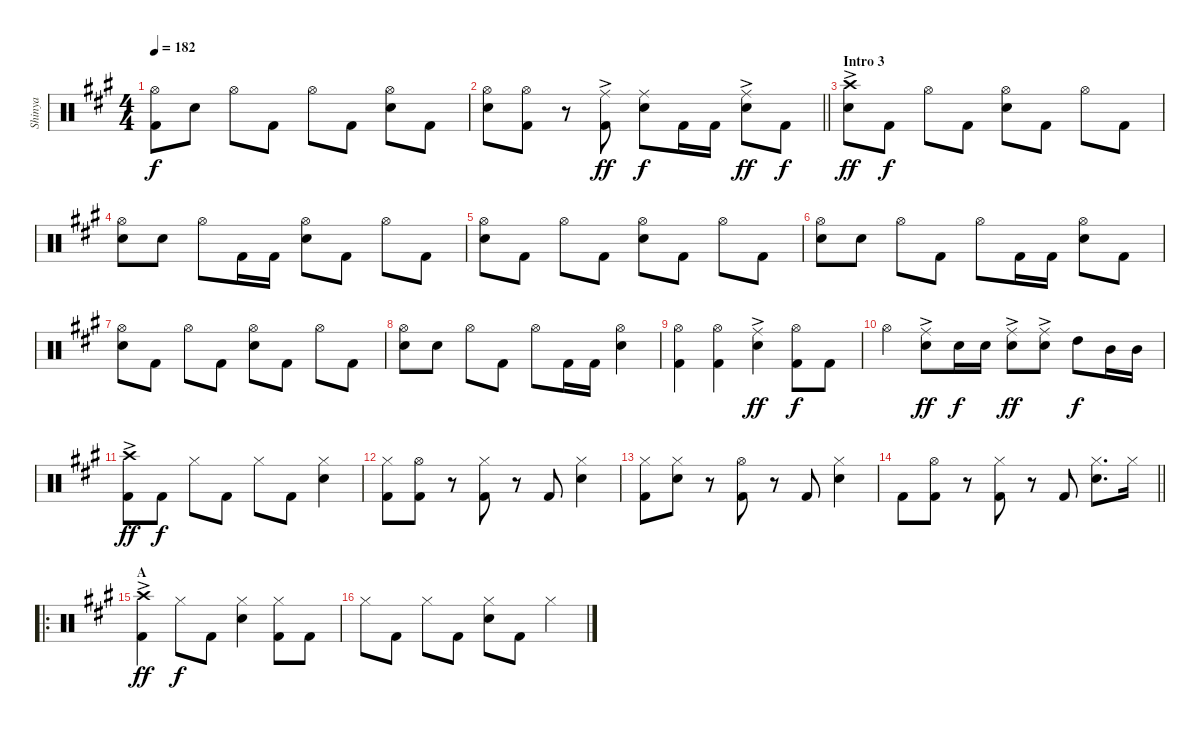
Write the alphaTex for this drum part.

\track ("Shinya" "Shinya") {instrument percussion}
\staff {score}
\articulation defaults
\ts (4 4)
\tempo 182
\clef neutral
\ks a
("Hi-Hat (open)" "Kick (hit) 2").8{dy f} "Snare (hit) 2".8 "Hi-Hat (open)".8 "Kick (hit) 2".8 "Hi-Hat (open)".8 "Kick (hit) 2".8 ("Hi-Hat (open)" "Snare (hit) 2").8 "Kick (hit) 2".8 |
\barLineRight lightlight
("Hi-Hat (open)" "Snare (hit) 2").8 ("Hi-Hat (open)" "Kick (hit) 2").8 r.8 ("Ride (middle)"{ac} "Kick (hit) 2").8{dy ff} ("Ride (middle)" "Snare (hit) 2").8{dy f} "Kick (hit) 2".16 "Kick (hit) 2".16 ("Ride (middle)"{ac} "Snare (hit) 2").8{dy ff} "Kick (hit) 2".8{dy f} |
\section ("" "Intro 3")
("Crash high (hit)"{ac} "Snare (hit) 2").8{dy ff} "Kick (hit) 2".8{dy f} "Hi-Hat (open)".8 "Kick (hit) 2".8 ("Hi-Hat (open)" "Snare (hit) 2").8 "Kick (hit) 2".8 "Hi-Hat (open)".8 "Kick (hit) 2".8 |
("Hi-Hat (open)" "Snare (hit) 2").8 "Snare (hit) 2".8 "Hi-Hat (open)".8 "Kick (hit) 2".16 "Kick (hit) 2".16 ("Hi-Hat (open)" "Snare (hit) 2").8 "Kick (hit) 2".8 "Hi-Hat (open)".8 "Kick (hit) 2".8 |
("Hi-Hat (open)" "Snare (hit) 2").8 "Kick (hit) 2".8 "Hi-Hat (open)".8 "Kick (hit) 2".8 ("Hi-Hat (open)" "Snare (hit) 2").8 "Kick (hit) 2".8 "Hi-Hat (open)".8 "Kick (hit) 2".8 |
("Hi-Hat (open)" "Snare (hit) 2").8 "Snare (hit) 2".8 "Hi-Hat (open)".8 "Kick (hit) 2".8 "Hi-Hat (open)".8 "Kick (hit) 2".16 "Kick (hit) 2".16 ("Hi-Hat (open)" "Snare (hit) 2").8 "Kick (hit) 2".8 |
("Hi-Hat (open)" "Snare (hit) 2").8 "Kick (hit) 2".8 "Hi-Hat (open)".8 "Kick (hit) 2".8 ("Hi-Hat (open)" "Snare (hit) 2").8 "Kick (hit) 2".8 "Hi-Hat (open)".8 "Kick (hit) 2".8 |
("Hi-Hat (open)" "Snare (hit) 2").8 "Snare (hit) 2".8 "Hi-Hat (open)".8 "Kick (hit) 2".8 "Hi-Hat (open)".8 "Kick (hit) 2".16 "Kick (hit) 2".16 ("Hi-Hat (open)" "Snare (hit) 2").4 |
("Hi-Hat (open)" "Kick (hit) 2").4 ("Hi-Hat (open)" "Kick (hit) 2").4 ("Ride (middle)"{ac} "Snare (hit) 2").4{dy ff} ("Hi-Hat (open)" "Kick (hit) 2").8{dy f} "Kick (hit) 2".8 |
"Hi-Hat (open)".4 ("Ride (middle)"{ac} "Snare (hit) 2").8{dy ff} "Snare (hit) 2".16{dy f} "Snare (hit) 2".16 ("Ride (middle)"{ac} "Snare (hit) 2").8{dy ff} ("Ride (middle)"{ac} "Snare (hit) 2").8 "High Tom (hit)".8{dy f} "Mid Tom (hit)".16 "Mid Tom (hit)".16 |
("Crash high (hit)"{ac} "Kick (hit) 2").8{dy ff} "Kick (hit) 2".8{dy f} "Hi-Hat (closed)".8 "Kick (hit) 2".8 "Hi-Hat (closed)".8 "Kick (hit) 2".8 ("Hi-Hat (closed)" "Snare (hit) 2").4 |
("Hi-Hat (closed)" "Kick (hit) 2").8 ("Hi-Hat (open)" "Kick (hit) 2").8 r.8 ("Hi-Hat (closed)" "Kick (hit) 2").8 r.8 "Kick (hit) 2".8 ("Hi-Hat (closed)" "Snare (hit) 2").4 |
("Hi-Hat (closed)" "Kick (hit) 2").8 ("Hi-Hat (closed)" "Snare (hit) 2").8 r.8 ("Hi-Hat (open)" "Kick (hit) 2").8 r.8 "Kick (hit) 2".8 ("Hi-Hat (closed)" "Snare (hit) 2").4 |
\barLineRight lightlight "Kick (hit) 2".8
("Hi-Hat (open)" "Kick (hit) 2").8 r.8 ("Hi-Hat (closed)" "Kick (hit) 2").8 r.8 "Kick (hit) 2".8 ("Hi-Hat (closed)" "Snare (hit) 2").8{d} "Hi-Hat (closed)".16 |
\ro
\section ("" "A")
("Crash high (hit)"{ac} "Kick (hit) 2").4{dy ff} "Hi-Hat (closed)".8{dy f} "Kick (hit) 2".8 ("Hi-Hat (closed)" "Snare (hit) 2").4 ("Hi-Hat (closed)" "Kick (hit) 2").8 "Kick (hit) 2".8 |
"Hi-Hat (closed)".8 "Kick (hit) 2".8 "Hi-Hat (closed)".8 "Kick (hit) 2".8 ("Hi-Hat (closed)" "Snare (hit) 2").8 "Kick (hit) 2".8 "Hi-Hat (closed)".4
